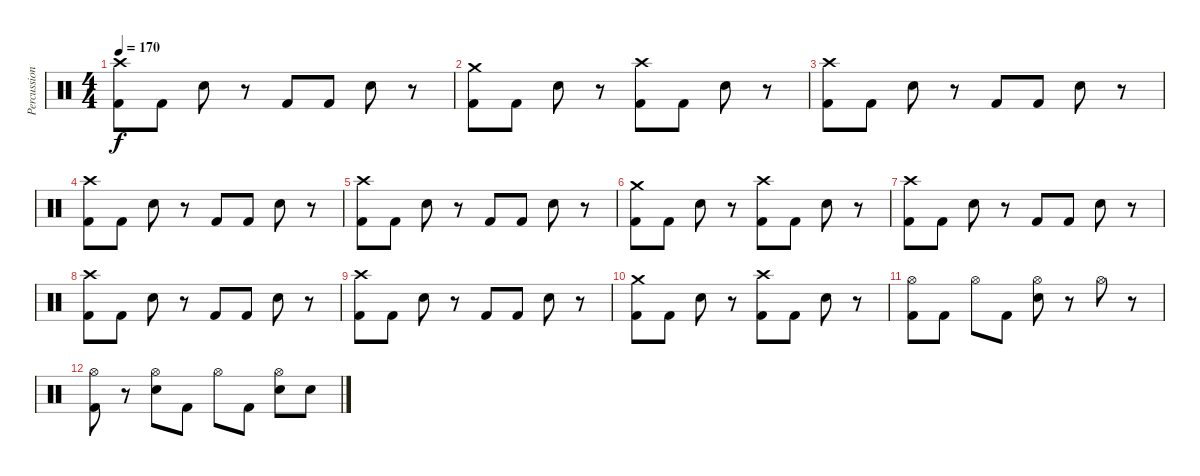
\track ("Percussion" "Percussion") {instrument percussion}
\staff {score}
\articulation defaults
\ts (4 4)
\tempo 170
\clef neutral
\ks c
("Crash high (hit)" "Kick (hit) 2").8{dy f} "Kick (hit) 2".8 "Electric Snare (hit)".8 r.8 "Kick (hit) 2".8 "Kick (hit) 2".8 "Electric Snare (hit)".8 r.8 |
("Crash medium (hit)" "Kick (hit) 2").8 "Kick (hit) 2".8 "Electric Snare (hit)".8 r.8 ("Crash high (hit)" "Kick (hit) 2").8 "Kick (hit) 2".8 "Electric Snare (hit)".8 r.8 |
("Crash high (hit)" "Kick (hit) 2").8 "Kick (hit) 2".8 "Electric Snare (hit)".8 r.8 "Kick (hit) 2".8 "Kick (hit) 2".8 "Electric Snare (hit)".8 r.8 |
("Crash high (hit)" "Kick (hit) 2").8 "Kick (hit) 2".8 "Electric Snare (hit)".8 r.8 "Kick (hit) 2".8 "Kick (hit) 2".8 "Electric Snare (hit)".8 r.8 |
("Crash high (hit)" "Kick (hit) 2").8 "Kick (hit) 2".8 "Electric Snare (hit)".8 r.8 "Kick (hit) 2".8 "Kick (hit) 2".8 "Electric Snare (hit)".8 r.8 |
("Crash medium (hit)" "Kick (hit) 2").8 "Kick (hit) 2".8 "Electric Snare (hit)".8 r.8 ("Crash high (hit)" "Kick (hit) 2").8 "Kick (hit) 2".8 "Electric Snare (hit)".8 r.8 |
("Crash high (hit)" "Kick (hit) 2").8 "Kick (hit) 2".8 "Electric Snare (hit)".8 r.8 "Kick (hit) 2".8 "Kick (hit) 2".8 "Electric Snare (hit)".8 r.8 |
("Crash high (hit)" "Kick (hit) 2").8 "Kick (hit) 2".8 "Electric Snare (hit)".8 r.8 "Kick (hit) 2".8 "Kick (hit) 2".8 "Electric Snare (hit)".8 r.8 |
("Crash high (hit)" "Kick (hit) 2").8 "Kick (hit) 2".8 "Electric Snare (hit)".8 r.8 "Kick (hit) 2".8 "Kick (hit) 2".8 "Electric Snare (hit)".8 r.8 |
("Crash medium (hit)" "Kick (hit) 2").8 "Kick (hit) 2".8 "Electric Snare (hit)".8 r.8 ("Crash high (hit)" "Kick (hit) 2").8 "Kick (hit) 2".8 "Electric Snare (hit)".8 r.8 |
("Hi-Hat (open)" "Kick (hit) 2").8 "Kick (hit) 2".8 "Hi-Hat (open)".8 "Kick (hit) 2".8 ("Hi-Hat (open)" "Electric Snare (hit)").8 r.8 "Hi-Hat (open)".8 r.8 |
("Hi-Hat (open)" "Kick (hit) 2").8 r.8 ("Hi-Hat (open)" "Electric Snare (hit)").8 "Kick (hit) 2".8 "Hi-Hat (open)".8 "Kick (hit) 2".8 ("Hi-Hat (open)" "Electric Snare (hit)").8 "Electric Snare (hit)".8
